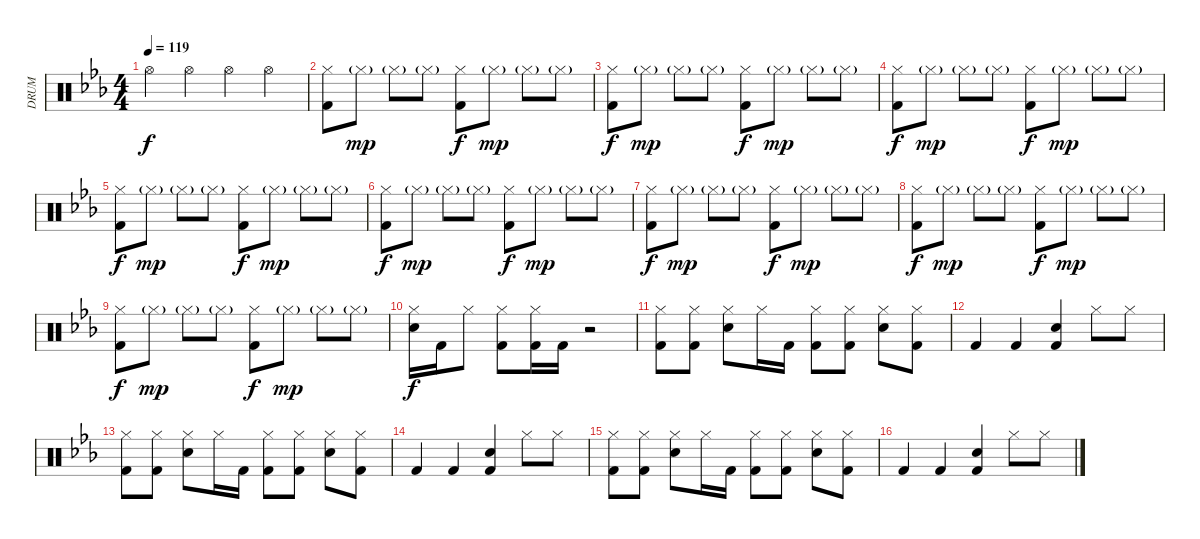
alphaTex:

\track ("DRUM" "DRUM") {instrument percussion}
\staff {score}
\articulation defaults
\ts (4 4)
\tempo 119
\clef neutral
\ks eb "Hi-Hat (open)".4{dy f} "Hi-Hat (open)".4 "Hi-Hat (open)".4 "Hi-Hat (open)".4
|
("Hi-Hat (closed)" "Kick (hit) 2").8 "Hi-Hat (closed)"{g}.8{dy mp} "Hi-Hat (closed)"{g}.8 "Hi-Hat (closed)"{g}.8 ("Hi-Hat (closed)" "Kick (hit) 2").8{dy f} "Hi-Hat (closed)"{g}.8{dy mp} "Hi-Hat (closed)"{g}.8 "Hi-Hat (closed)"{g}.8 |
("Hi-Hat (closed)" "Kick (hit) 2").8{dy f} "Hi-Hat (closed)"{g}.8{dy mp} "Hi-Hat (closed)"{g}.8 "Hi-Hat (closed)"{g}.8 ("Hi-Hat (closed)" "Kick (hit) 2").8{dy f} "Hi-Hat (closed)"{g}.8{dy mp} "Hi-Hat (closed)"{g}.8 "Hi-Hat (closed)"{g}.8 |
("Hi-Hat (closed)" "Kick (hit) 2").8{dy f} "Hi-Hat (closed)"{g}.8{dy mp} "Hi-Hat (closed)"{g}.8 "Hi-Hat (closed)"{g}.8 ("Hi-Hat (closed)" "Kick (hit) 2").8{dy f} "Hi-Hat (closed)"{g}.8{dy mp} "Hi-Hat (closed)"{g}.8 "Hi-Hat (closed)"{g}.8 |
("Hi-Hat (closed)" "Kick (hit) 2").8{dy f} "Hi-Hat (closed)"{g}.8{dy mp} "Hi-Hat (closed)"{g}.8 "Hi-Hat (closed)"{g}.8 ("Hi-Hat (closed)" "Kick (hit) 2").8{dy f} "Hi-Hat (closed)"{g}.8{dy mp} "Hi-Hat (closed)"{g}.8 "Hi-Hat (closed)"{g}.8 |
("Hi-Hat (closed)" "Kick (hit) 2").8{dy f} "Hi-Hat (closed)"{g}.8{dy mp} "Hi-Hat (closed)"{g}.8 "Hi-Hat (closed)"{g}.8 ("Hi-Hat (closed)" "Kick (hit) 2").8{dy f} "Hi-Hat (closed)"{g}.8{dy mp} "Hi-Hat (closed)"{g}.8 "Hi-Hat (closed)"{g}.8 |
("Hi-Hat (closed)" "Kick (hit) 2").8{dy f} "Hi-Hat (closed)"{g}.8{dy mp} "Hi-Hat (closed)"{g}.8 "Hi-Hat (closed)"{g}.8 ("Hi-Hat (closed)" "Kick (hit) 2").8{dy f} "Hi-Hat (closed)"{g}.8{dy mp} "Hi-Hat (closed)"{g}.8 "Hi-Hat (closed)"{g}.8 |
("Hi-Hat (closed)" "Kick (hit) 2").8{dy f} "Hi-Hat (closed)"{g}.8{dy mp} "Hi-Hat (closed)"{g}.8 "Hi-Hat (closed)"{g}.8 ("Hi-Hat (closed)" "Kick (hit) 2").8{dy f} "Hi-Hat (closed)"{g}.8{dy mp} "Hi-Hat (closed)"{g}.8 "Hi-Hat (closed)"{g}.8 |
("Hi-Hat (closed)" "Kick (hit) 2").8{dy f} "Hi-Hat (closed)"{g}.8{dy mp} "Hi-Hat (closed)"{g}.8 "Hi-Hat (closed)"{g}.8 ("Hi-Hat (closed)" "Kick (hit) 2").8{dy f} "Hi-Hat (closed)"{g}.8{dy mp} "Hi-Hat (closed)"{g}.8 "Hi-Hat (closed)"{g}.8 |
("Hi-Hat (closed)" "Snare (hit) 2").16{dy f} "Kick (hit) 2".16 "Hi-Hat (closed)".8 ("Hi-Hat (closed)" "Kick (hit) 2").8 ("Hi-Hat (closed)" "Kick (hit) 2").16 "Kick (hit) 2".16 r.2 |
("Hi-Hat (closed)" "Kick (hit) 2").8 ("Hi-Hat (closed)" "Kick (hit) 2").8 ("Hi-Hat (closed)" "Snare (hit) 2").8 "Hi-Hat (closed)".16 "Kick (hit) 2".16 ("Hi-Hat (closed)" "Kick (hit) 2").8 ("Hi-Hat (closed)" "Kick (hit) 2").8 ("Hi-Hat (closed)" "Snare (hit) 2").8 ("Hi-Hat (closed)" "Kick (hit) 2").8 |
"Kick (hit) 2".4 "Kick (hit) 2".4 ("Snare (hit) 2" "Kick (hit) 2").4 "Hi-Hat (closed)".8 "Hi-Hat (closed)".8 |
("Hi-Hat (closed)" "Kick (hit) 2").8 ("Hi-Hat (closed)" "Kick (hit) 2").8 ("Hi-Hat (closed)" "Snare (hit) 2").8 "Hi-Hat (closed)".16 "Kick (hit) 2".16 ("Hi-Hat (closed)" "Kick (hit) 2").8 ("Hi-Hat (closed)" "Kick (hit) 2").8 ("Hi-Hat (closed)" "Snare (hit) 2").8 ("Hi-Hat (closed)" "Kick (hit) 2").8 |
"Kick (hit) 2".4 "Kick (hit) 2".4 ("Snare (hit) 2" "Kick (hit) 2").4 "Hi-Hat (closed)".8 "Hi-Hat (closed)".8 |
("Hi-Hat (closed)" "Kick (hit) 2").8 ("Hi-Hat (closed)" "Kick (hit) 2").8 ("Hi-Hat (closed)" "Snare (hit) 2").8 "Hi-Hat (closed)".16 "Kick (hit) 2".16 ("Hi-Hat (closed)" "Kick (hit) 2").8 ("Hi-Hat (closed)" "Kick (hit) 2").8 ("Hi-Hat (closed)" "Snare (hit) 2").8 ("Hi-Hat (closed)" "Kick (hit) 2").8 |
"Kick (hit) 2".4 "Kick (hit) 2".4 ("Snare (hit) 2" "Kick (hit) 2").4 "Hi-Hat (closed)".8 "Hi-Hat (closed)".8
